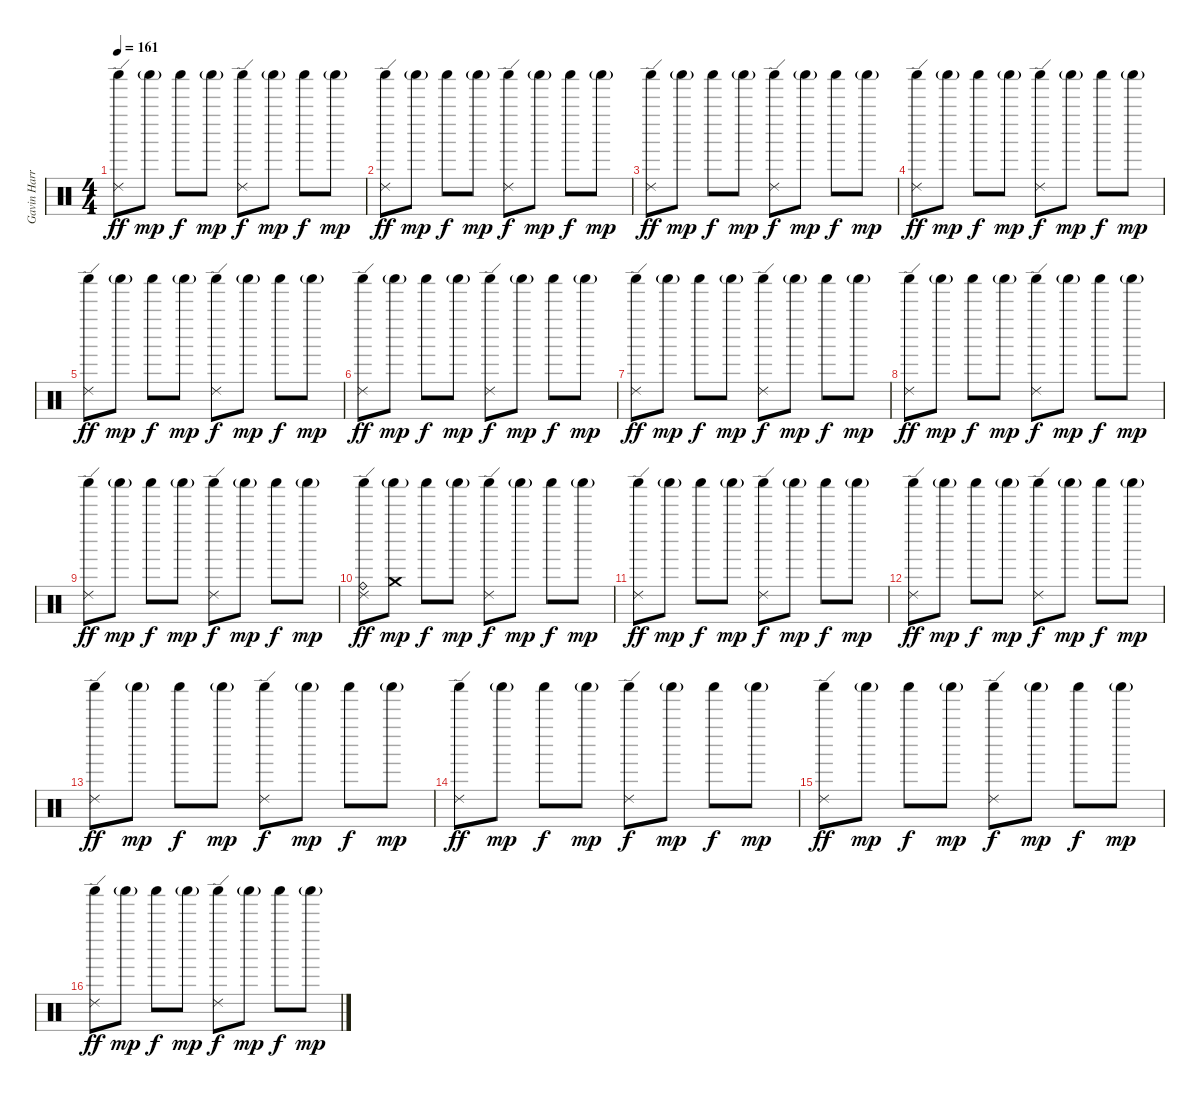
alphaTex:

\track ("Gavin Harrison (Drums)" "Gavin Harr") {instrument percussion}
\staff {score}
\articulation defaults
\ts (4 4)
\tempo 161
\clef neutral
\ks c
("Ride (edge) 2" "Shaker (hit)").8{dy ff} "Shaker (hit)"{g}.8{dy mp} "Shaker (hit)".8{dy f} "Shaker (hit)"{g}.8{dy mp} ("Ride (edge) 2" "Shaker (hit)").8{dy f} "Shaker (hit)"{g}.8{dy mp} "Shaker (hit)".8{dy f} "Shaker (hit)"{g}.8{dy mp} |
("Ride (edge) 2" "Shaker (hit)").8{dy ff} "Shaker (hit)"{g}.8{dy mp} "Shaker (hit)".8{dy f} "Shaker (hit)"{g}.8{dy mp} ("Ride (edge) 2" "Shaker (hit)").8{dy f} "Shaker (hit)"{g}.8{dy mp} "Shaker (hit)".8{dy f} "Shaker (hit)"{g}.8{dy mp} |
("Ride (edge) 2" "Shaker (hit)").8{dy ff} "Shaker (hit)"{g}.8{dy mp} "Shaker (hit)".8{dy f} "Shaker (hit)"{g}.8{dy mp} ("Ride (edge) 2" "Shaker (hit)").8{dy f} "Shaker (hit)"{g}.8{dy mp} "Shaker (hit)".8{dy f} "Shaker (hit)"{g}.8{dy mp} |
("Ride (edge) 2" "Shaker (hit)").8{dy ff} "Shaker (hit)"{g}.8{dy mp} "Shaker (hit)".8{dy f} "Shaker (hit)"{g}.8{dy mp} ("Ride (edge) 2" "Shaker (hit)").8{dy f} "Shaker (hit)"{g}.8{dy mp} "Shaker (hit)".8{dy f} "Shaker (hit)"{g}.8{dy mp} |
("Ride (edge) 2" "Shaker (hit)").8{dy ff} "Shaker (hit)"{g}.8{dy mp} "Shaker (hit)".8{dy f} "Shaker (hit)"{g}.8{dy mp} ("Ride (edge) 2" "Shaker (hit)").8{dy f} "Shaker (hit)"{g}.8{dy mp} "Shaker (hit)".8{dy f} "Shaker (hit)"{g}.8{dy mp} |
("Ride (edge) 2" "Shaker (hit)").8{dy ff} "Shaker (hit)"{g}.8{dy mp} "Shaker (hit)".8{dy f} "Shaker (hit)"{g}.8{dy mp} ("Ride (edge) 2" "Shaker (hit)").8{dy f} "Shaker (hit)"{g}.8{dy mp} "Shaker (hit)".8{dy f} "Shaker (hit)"{g}.8{dy mp} |
("Ride (edge) 2" "Shaker (hit)").8{dy ff} "Shaker (hit)"{g}.8{dy mp} "Shaker (hit)".8{dy f} "Shaker (hit)"{g}.8{dy mp} ("Ride (edge) 2" "Shaker (hit)").8{dy f} "Shaker (hit)"{g}.8{dy mp} "Shaker (hit)".8{dy f} "Shaker (hit)"{g}.8{dy mp} |
("Ride (edge) 2" "Shaker (hit)").8{dy ff} "Shaker (hit)"{g}.8{dy mp} "Shaker (hit)".8{dy f} "Shaker (hit)"{g}.8{dy mp} ("Ride (edge) 2" "Shaker (hit)").8{dy f} "Shaker (hit)"{g}.8{dy mp} "Shaker (hit)".8{dy f} "Shaker (hit)"{g}.8{dy mp} |
("Ride (edge) 2" "Shaker (hit)").8{dy ff} "Shaker (hit)"{g}.8{dy mp} "Shaker (hit)".8{dy f} "Shaker (hit)"{g}.8{dy mp} ("Ride (edge) 2" "Shaker (hit)").8{dy f} "Shaker (hit)"{g}.8{dy mp} "Shaker (hit)".8{dy f} "Shaker (hit)"{g}.8{dy mp} |
("Ride (bell)" "Ride (edge) 2" "Shaker (hit)").8{dy ff} ("Crash medium (hit)" "Shaker (hit)"{g}).8{dy mp} "Shaker (hit)".8{dy f} "Shaker (hit)"{g}.8{dy mp} ("Ride (edge) 2" "Shaker (hit)").8{dy f} "Shaker (hit)"{g}.8{dy mp} "Shaker (hit)".8{dy f} "Shaker (hit)"{g}.8{dy mp} |
("Ride (edge) 2" "Shaker (hit)").8{dy ff} "Shaker (hit)"{g}.8{dy mp} "Shaker (hit)".8{dy f} "Shaker (hit)"{g}.8{dy mp} ("Ride (edge) 2" "Shaker (hit)").8{dy f} "Shaker (hit)"{g}.8{dy mp} "Shaker (hit)".8{dy f} "Shaker (hit)"{g}.8{dy mp} |
("Ride (edge) 2" "Shaker (hit)").8{dy ff} "Shaker (hit)"{g}.8{dy mp} "Shaker (hit)".8{dy f} "Shaker (hit)"{g}.8{dy mp} ("Ride (edge) 2" "Shaker (hit)").8{dy f} "Shaker (hit)"{g}.8{dy mp} "Shaker (hit)".8{dy f} "Shaker (hit)"{g}.8{dy mp} |
("Ride (edge) 2" "Shaker (hit)").8{dy ff} "Shaker (hit)"{g}.8{dy mp} "Shaker (hit)".8{dy f} "Shaker (hit)"{g}.8{dy mp} ("Ride (edge) 2" "Shaker (hit)").8{dy f} "Shaker (hit)"{g}.8{dy mp} "Shaker (hit)".8{dy f} "Shaker (hit)"{g}.8{dy mp} |
("Ride (edge) 2" "Shaker (hit)").8{dy ff} "Shaker (hit)"{g}.8{dy mp} "Shaker (hit)".8{dy f} "Shaker (hit)"{g}.8{dy mp} ("Ride (edge) 2" "Shaker (hit)").8{dy f} "Shaker (hit)"{g}.8{dy mp} "Shaker (hit)".8{dy f} "Shaker (hit)"{g}.8{dy mp} |
("Ride (edge) 2" "Shaker (hit)").8{dy ff} "Shaker (hit)"{g}.8{dy mp} "Shaker (hit)".8{dy f} "Shaker (hit)"{g}.8{dy mp} ("Ride (edge) 2" "Shaker (hit)").8{dy f} "Shaker (hit)"{g}.8{dy mp} "Shaker (hit)".8{dy f} "Shaker (hit)"{g}.8{dy mp} |
("Ride (edge) 2" "Shaker (hit)").8{dy ff} "Shaker (hit)"{g}.8{dy mp} "Shaker (hit)".8{dy f} "Shaker (hit)"{g}.8{dy mp} ("Ride (edge) 2" "Shaker (hit)").8{dy f} "Shaker (hit)"{g}.8{dy mp} "Shaker (hit)".8{dy f} "Shaker (hit)"{g}.8{dy mp}
